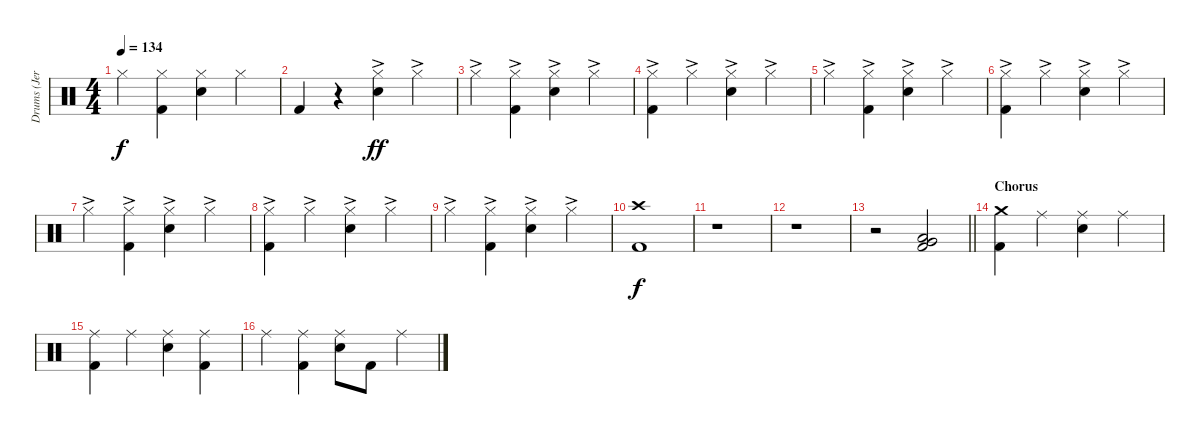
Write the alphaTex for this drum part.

\track ("Drums (Jeremy Taggart)" "Drums (Jer") {instrument percussion}
\staff
\articulation defaults
\ts (4 4)
\tempo 134
\clef neutral
\ks c "Hi-Hat (closed)".4{dy f}
("Hi-Hat (closed)" "Kick (hit) 2").4 ("Hi-Hat (closed)" "Snare (hit) 2").4 "Hi-Hat (closed)".4 |
"Kick (hit) 2".4 r.4 ("Hi-Hat (closed)"{ac} "Snare (hit) 2").4{dy ff} "Hi-Hat (closed)"{ac}.4 |
"Hi-Hat (closed)"{ac}.4 ("Hi-Hat (closed)"{ac} "Kick (hit) 2").4 ("Hi-Hat (closed)"{ac} "Snare (hit) 2").4 "Hi-Hat (closed)"{ac}.4 |
("Hi-Hat (closed)"{ac} "Kick (hit) 2").4 "Hi-Hat (closed)"{ac}.4 ("Hi-Hat (closed)"{ac} "Snare (hit) 2").4 "Hi-Hat (closed)"{ac}.4 |
"Hi-Hat (closed)"{ac}.4 ("Hi-Hat (closed)"{ac} "Kick (hit) 2").4 ("Hi-Hat (closed)"{ac} "Snare (hit) 2").4 "Hi-Hat (closed)"{ac}.4 |
("Hi-Hat (closed)"{ac} "Kick (hit) 2").4 "Hi-Hat (closed)"{ac}.4 ("Hi-Hat (closed)"{ac} "Snare (hit) 2").4 "Hi-Hat (closed)"{ac}.4 |
"Hi-Hat (closed)"{ac}.4 ("Hi-Hat (closed)"{ac} "Kick (hit) 2").4 ("Hi-Hat (closed)"{ac} "Snare (hit) 2").4 "Hi-Hat (closed)"{ac}.4 |
("Hi-Hat (closed)"{ac} "Kick (hit) 2").4 "Hi-Hat (closed)"{ac}.4 ("Hi-Hat (closed)"{ac} "Snare (hit) 2").4 "Hi-Hat (closed)"{ac}.4 |
"Hi-Hat (closed)"{ac}.4 ("Hi-Hat (closed)"{ac} "Kick (hit) 2").4 ("Hi-Hat (closed)"{ac} "Snare (hit) 2").4 "Hi-Hat (closed)"{ac}.4 |
("Crash high (hit)" "Kick (hit) 2").1{dy f} |
r.1 |
r.1 |
\barLineRight lightlight
r.2 ("Very Low Tom (hit)" "Low Floor Tom (hit)" "Kick (hit) 2").2 |
\section ("" "Chorus")
("Crash medium (hit)" "Kick (hit) 2").4 "Ride (middle)".4 ("Ride (middle)" "Snare (hit) 2").4 "Ride (middle)".4 |
("Ride (middle)" "Kick (hit) 2").4 "Ride (middle)".4 ("Ride (middle)" "Snare (hit) 2").4 ("Ride (middle)" "Kick (hit) 2").4 |
"Ride (middle)".4 ("Ride (middle)" "Kick (hit) 2").4 ("Ride (middle)" "Snare (hit) 2").8 "Kick (hit) 2".8 "Ride (middle)".4
